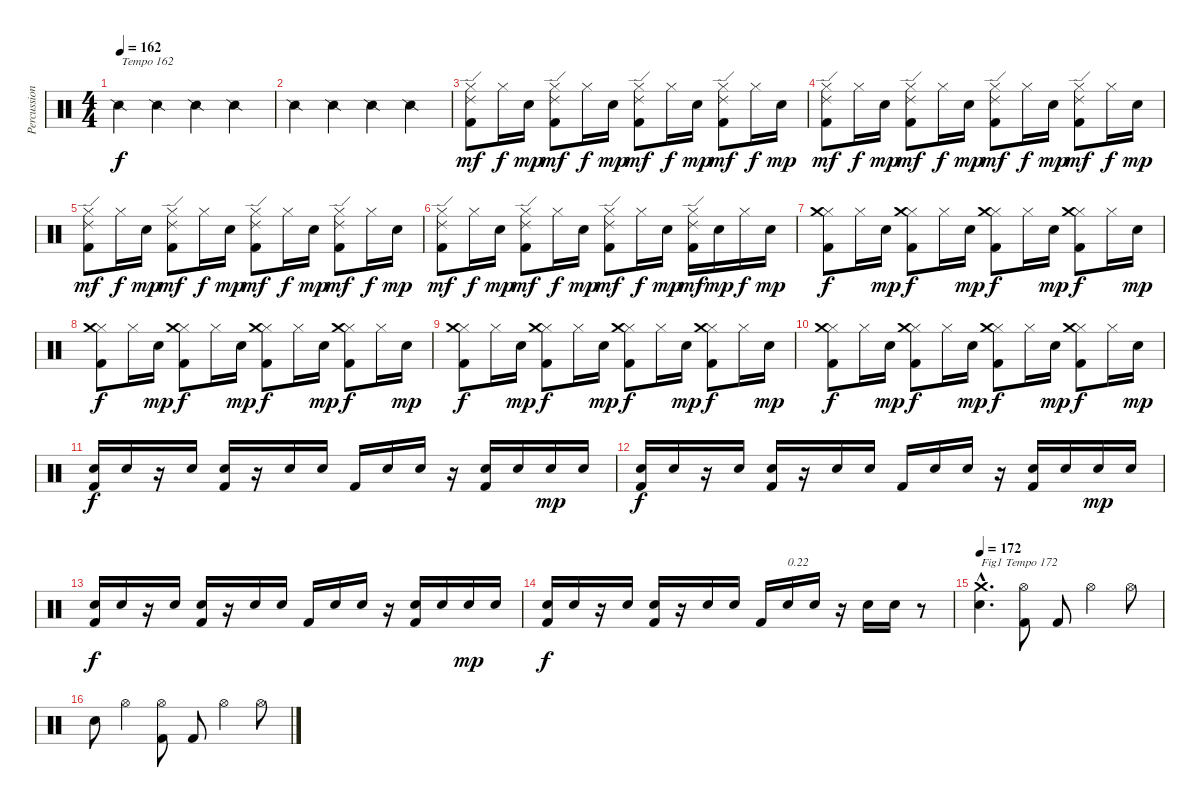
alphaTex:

\track ("Percussions" "Percussion") {instrument percussion}
\staff {score}
\articulation defaults
\ts (4 4)
\tempo 162
\clef neutral
\ks c "Snare (side stick) 2".4{txt "Tempo 162" dy f} "Snare (side stick) 2".4 "Snare (side stick) 2".4 "Snare (side stick) 2".4
|
"Snare (side stick) 2".4 "Snare (side stick) 2".4 "Snare (side stick) 2".4 "Snare (side stick) 2".4 |
("Kick (hit) 2" "Hi-Hat (closed)" "Ride (edge) 2").8{dy mf} "Hi-Hat (closed)".16{dy f} "Electric Snare (hit)".16{dy mp} ("Kick (hit) 2" "Hi-Hat (closed)" "Ride (edge) 2").8{dy mf} "Hi-Hat (closed)".16{dy f} "Electric Snare (hit)".16{dy mp} ("Kick (hit) 2" "Hi-Hat (closed)" "Ride (edge) 2").8{dy mf} "Hi-Hat (closed)".16{dy f} "Electric Snare (hit)".16{dy mp} ("Kick (hit) 2" "Hi-Hat (closed)" "Ride (edge) 2").8{dy mf} "Hi-Hat (closed)".16{dy f} "Electric Snare (hit)".16{dy mp} |
("Kick (hit) 2" "Hi-Hat (closed)" "Ride (edge) 2").8{dy mf} "Hi-Hat (closed)".16{dy f} "Electric Snare (hit)".16{dy mp} ("Kick (hit) 2" "Hi-Hat (closed)" "Ride (edge) 2").8{dy mf} "Hi-Hat (closed)".16{dy f} "Electric Snare (hit)".16{dy mp} ("Kick (hit) 2" "Hi-Hat (closed)" "Ride (edge) 2").8{dy mf} "Hi-Hat (closed)".16{dy f} "Electric Snare (hit)".16{dy mp} ("Kick (hit) 2" "Hi-Hat (closed)" "Ride (edge) 2").8{dy mf} "Hi-Hat (closed)".16{dy f} "Electric Snare (hit)".16{dy mp} |
("Kick (hit) 2" "Hi-Hat (closed)" "Ride (edge) 2").8{dy mf} "Hi-Hat (closed)".16{dy f} "Electric Snare (hit)".16{dy mp} ("Kick (hit) 2" "Hi-Hat (closed)" "Ride (edge) 2").8{dy mf} "Hi-Hat (closed)".16{dy f} "Electric Snare (hit)".16{dy mp} ("Kick (hit) 2" "Hi-Hat (closed)" "Ride (edge) 2").8{dy mf} "Hi-Hat (closed)".16{dy f} "Electric Snare (hit)".16{dy mp} ("Kick (hit) 2" "Hi-Hat (closed)" "Ride (edge) 2").8{dy mf} "Hi-Hat (closed)".16{dy f} "Electric Snare (hit)".16{dy mp} |
("Kick (hit) 2" "Hi-Hat (closed)" "Ride (edge) 2").8{dy mf} "Hi-Hat (closed)".16{dy f} "Electric Snare (hit)".16{dy mp} ("Kick (hit) 2" "Hi-Hat (closed)" "Ride (edge) 2").8{dy mf} "Hi-Hat (closed)".16{dy f} "Electric Snare (hit)".16{dy mp} ("Kick (hit) 2" "Hi-Hat (closed)" "Ride (edge) 2").8{dy mf} "Hi-Hat (closed)".16{dy f} "Electric Snare (hit)".16{dy mp} ("Kick (hit) 2" "Hi-Hat (closed)" "Ride (edge) 2").16{dy mf} "Electric Snare (hit)".16{dy mp} "Hi-Hat (closed)".16{dy f} "Electric Snare (hit)".16{dy mp} |
("Kick (hit) 2" "Hi-Hat (closed)" "Crash medium (hit)").8{dy f} "Hi-Hat (closed)".16 "Electric Snare (hit)".16{dy mp} ("Kick (hit) 2" "Hi-Hat (closed)" "Crash medium (hit)").8{dy f} "Hi-Hat (closed)".16 "Electric Snare (hit)".16{dy mp} ("Kick (hit) 2" "Hi-Hat (closed)" "Crash medium (hit)").8{dy f} "Hi-Hat (closed)".16 "Electric Snare (hit)".16{dy mp} ("Kick (hit) 2" "Hi-Hat (closed)" "Crash medium (hit)").8{dy f} "Hi-Hat (closed)".16 "Electric Snare (hit)".16{dy mp} |
("Kick (hit) 2" "Hi-Hat (closed)" "Crash medium (hit)").8{dy f} "Hi-Hat (closed)".16 "Electric Snare (hit)".16{dy mp} ("Kick (hit) 2" "Hi-Hat (closed)" "Crash medium (hit)").8{dy f} "Hi-Hat (closed)".16 "Electric Snare (hit)".16{dy mp} ("Kick (hit) 2" "Hi-Hat (closed)" "Crash medium (hit)").8{dy f} "Hi-Hat (closed)".16 "Electric Snare (hit)".16{dy mp} ("Kick (hit) 2" "Hi-Hat (closed)" "Crash medium (hit)").8{dy f} "Hi-Hat (closed)".16 "Electric Snare (hit)".16{dy mp} |
("Kick (hit) 2" "Hi-Hat (closed)" "Crash medium (hit)").8{dy f} "Hi-Hat (closed)".16 "Electric Snare (hit)".16{dy mp} ("Kick (hit) 2" "Hi-Hat (closed)" "Crash medium (hit)").8{dy f} "Hi-Hat (closed)".16 "Electric Snare (hit)".16{dy mp} ("Kick (hit) 2" "Hi-Hat (closed)" "Crash medium (hit)").8{dy f} "Hi-Hat (closed)".16 "Electric Snare (hit)".16{dy mp} ("Kick (hit) 2" "Hi-Hat (closed)" "Crash medium (hit)").8{dy f} "Hi-Hat (closed)".16 "Electric Snare (hit)".16{dy mp} |
("Kick (hit) 2" "Hi-Hat (closed)" "Crash medium (hit)").8{dy f} "Hi-Hat (closed)".16 "Electric Snare (hit)".16{dy mp} ("Kick (hit) 2" "Hi-Hat (closed)" "Crash medium (hit)").8{dy f} "Hi-Hat (closed)".16 "Electric Snare (hit)".16{dy mp} ("Kick (hit) 2" "Hi-Hat (closed)" "Crash medium (hit)").8{dy f} "Hi-Hat (closed)".16 "Electric Snare (hit)".16{dy mp} ("Kick (hit) 2" "Hi-Hat (closed)" "Crash medium (hit)").8{dy f} "Hi-Hat (closed)".16 "Electric Snare (hit)".16{dy mp} |
("Kick (hit) 2" "Electric Snare (hit)").16{dy f} "Electric Snare (hit)".16 r.16 "Electric Snare (hit)".16 ("Kick (hit) 2" "Electric Snare (hit)").16 r.16 "Electric Snare (hit)".16 "Electric Snare (hit)".16 "Kick (hit) 2".16 "Electric Snare (hit)".16 "Electric Snare (hit)".16 r.16 ("Kick (hit) 2" "Electric Snare (hit)").16 "Electric Snare (hit)".16 "Electric Snare (hit)".16{dy mp} "Electric Snare (hit)".16 |
("Kick (hit) 2" "Electric Snare (hit)").16{dy f} "Electric Snare (hit)".16 r.16 "Electric Snare (hit)".16 ("Kick (hit) 2" "Electric Snare (hit)").16 r.16 "Electric Snare (hit)".16 "Electric Snare (hit)".16 "Kick (hit) 2".16 "Electric Snare (hit)".16 "Electric Snare (hit)".16 r.16 ("Kick (hit) 2" "Electric Snare (hit)").16 "Electric Snare (hit)".16 "Electric Snare (hit)".16{dy mp} "Electric Snare (hit)".16 |
("Kick (hit) 2" "Electric Snare (hit)").16{dy f} "Electric Snare (hit)".16 r.16 "Electric Snare (hit)".16 ("Kick (hit) 2" "Electric Snare (hit)").16 r.16 "Electric Snare (hit)".16 "Electric Snare (hit)".16 "Kick (hit) 2".16 "Electric Snare (hit)".16 "Electric Snare (hit)".16 r.16 ("Kick (hit) 2" "Electric Snare (hit)").16 "Electric Snare (hit)".16 "Electric Snare (hit)".16{dy mp} "Electric Snare (hit)".16 |
("Kick (hit) 2" "Electric Snare (hit)").16{dy f} "Electric Snare (hit)".16 r.16 "Electric Snare (hit)".16 ("Kick (hit) 2" "Electric Snare (hit)").16 r.16 "Electric Snare (hit)".16 "Electric Snare (hit)".16 "Kick (hit) 2".16 "Electric Snare (hit)".16{txt "0.22"} "Electric Snare (hit)".16 r.16 "Electric Snare (hit)".16 "Electric Snare (hit)".16 r.8 |
\tempo 172
("Electric Snare (hit)"{hac} "Crash medium (hit)"{hac}).4{d txt "Fig1 Tempo 172"} ("Kick (hit) 2" "Hi-Hat (open)").8 "Kick (hit) 2".8 "Hi-Hat (open)".4 "Hi-Hat (open)".8 |
"Electric Snare (hit)".8 "Hi-Hat (open)".4 ("Kick (hit) 2" "Hi-Hat (open)").8 "Kick (hit) 2".8 "Hi-Hat (open)".4 "Hi-Hat (open)".8
